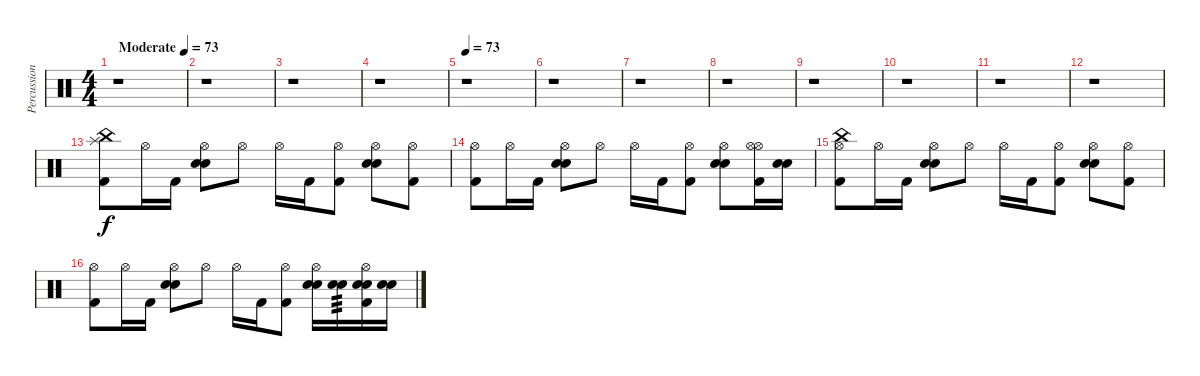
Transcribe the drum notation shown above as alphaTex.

\track ("Percussion" "Percussion") {instrument percussion}
\staff {score}
\articulation defaults
\ts (4 4)
\tempo (73 "Moderate")
\clef neutral
\ks c
r.1{dy f} |
r.1 |
r.1 |
r.1 |
\tempo 73
r.1 |
r.1 |
r.1 |
r.1 |
r.1 |
r.1 |
r.1 |
r.1 |
("Kick (hit) 2" "China (hit)" "Splash (hit)").8 "Hi-Hat (open)".16 "Kick (hit) 2".16 ("Electric Snare (hit)" "Electric Snare (hit)" "Hi-Hat (open)").8 "Hi-Hat (open)".8 "Hi-Hat (open)".16 "Kick (hit) 2".16 ("Kick (hit) 2" "Hi-Hat (open)").8 ("Electric Snare (hit)" "Electric Snare (hit)" "Hi-Hat (open)").8 ("Kick (hit) 2" "Hi-Hat (open)").8 |
("Kick (hit) 2" "Hi-Hat (open)").8 "Hi-Hat (open)".16 "Kick (hit) 2".16 ("Electric Snare (hit)" "Electric Snare (hit)" "Hi-Hat (open)").8 "Hi-Hat (open)".8 "Hi-Hat (open)".16 "Kick (hit) 2".16 ("Kick (hit) 2" "Hi-Hat (open)").8 ("Electric Snare (hit)" "Electric Snare (hit)" "Hi-Hat (open)").8 ("Kick (hit) 2" "Hi-Hat (open)" "Hi-Hat (open)").16 ("Electric Snare (hit)" "Electric Snare (hit)").16 |
("Kick (hit) 2" "China (hit)" "Hi-Hat (open)").8 "Hi-Hat (open)".16 "Kick (hit) 2".16 ("Electric Snare (hit)" "Electric Snare (hit)" "Hi-Hat (open)").8 "Hi-Hat (open)".8 "Hi-Hat (open)".16 "Kick (hit) 2".16 ("Kick (hit) 2" "Hi-Hat (open)").8 ("Electric Snare (hit)" "Electric Snare (hit)" "Hi-Hat (open)").8 ("Kick (hit) 2" "Hi-Hat (open)").8 |
("Kick (hit) 2" "Hi-Hat (open)").8 "Hi-Hat (open)".16 "Kick (hit) 2".16 ("Electric Snare (hit)" "Electric Snare (hit)" "Hi-Hat (open)").8 "Hi-Hat (open)".8 "Hi-Hat (open)".16 "Kick (hit) 2".16 ("Kick (hit) 2" "Hi-Hat (open)").8 ("Electric Snare (hit)" "Electric Snare (hit)" "Hi-Hat (open)").16 ("Electric Snare (hit)" "Electric Snare (hit)").16{tp 3} ("Kick (hit) 2" "Electric Snare (hit)" "Hi-Hat (open)" "Electric Snare (hit)").16 ("Electric Snare (hit)" "Electric Snare (hit)").16
